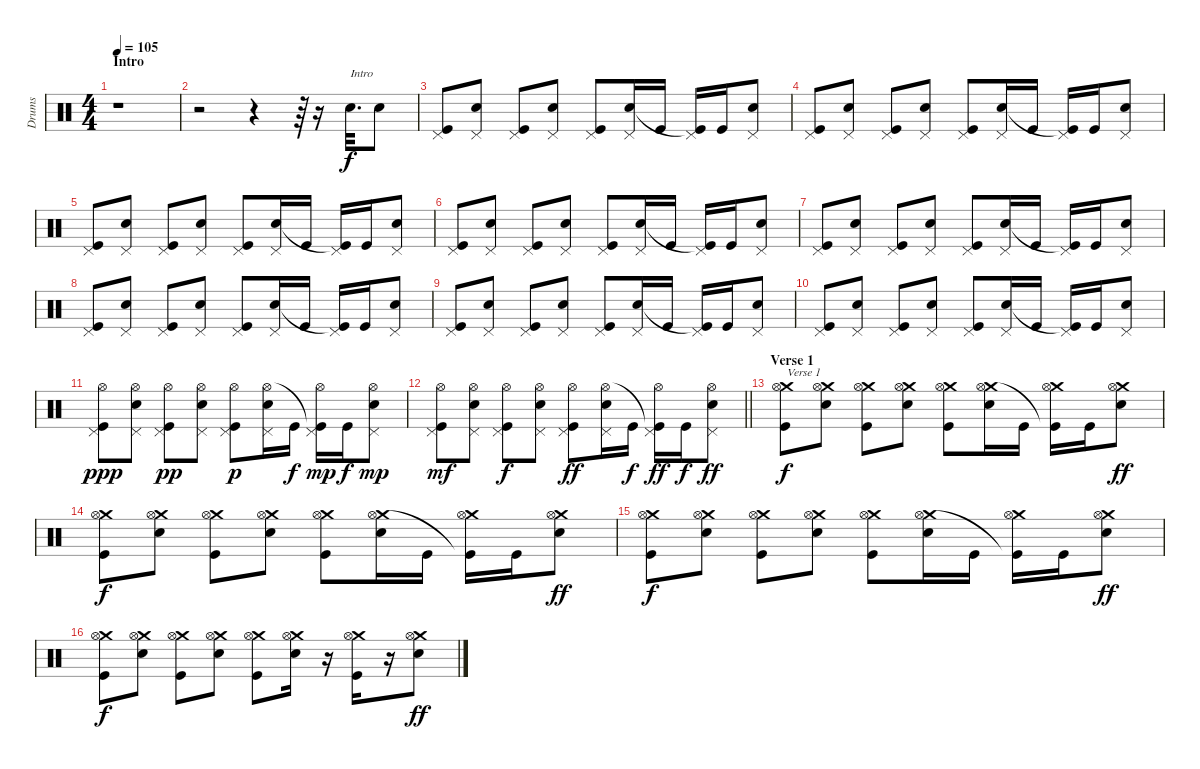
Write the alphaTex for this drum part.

\track ("Drums" "Drums") {instrument percussion}
\staff {score}
\articulation defaults
\ts (4 4)
\section ("" "Intro")
\tempo 105
\clef neutral
\ks c
r.1{dy f} |
r.2 r.4 r.64 r.16 "Electric Snare (hit)".32{d txt "Intro"} "Electric Snare (hit)".8 |
("Pedal Hi-Hat (hit)" "Kick (hit)").8 ("Pedal Hi-Hat (hit)" "Electric Snare (hit)").8 ("Pedal Hi-Hat (hit)" "Kick (hit)").8 ("Pedal Hi-Hat (hit)" "Electric Snare (hit)").8 ("Pedal Hi-Hat (hit)" "Kick (hit)").8 ("Pedal Hi-Hat (hit)" "Electric Snare (hit)").16 "Kick (hit)".16 ("Pedal Hi-Hat (hit)" "Kick (hit)"{t}).16 "Kick (hit)".16 ("Pedal Hi-Hat (hit)" "Electric Snare (hit)").8 |
("Pedal Hi-Hat (hit)" "Kick (hit)").8 ("Pedal Hi-Hat (hit)" "Electric Snare (hit)").8 ("Pedal Hi-Hat (hit)" "Kick (hit)").8 ("Pedal Hi-Hat (hit)" "Electric Snare (hit)").8 ("Pedal Hi-Hat (hit)" "Kick (hit)").8 ("Pedal Hi-Hat (hit)" "Electric Snare (hit)").16 "Kick (hit)".16 ("Pedal Hi-Hat (hit)" "Kick (hit)"{t}).16 "Kick (hit)".16 ("Pedal Hi-Hat (hit)" "Electric Snare (hit)").8 |
("Pedal Hi-Hat (hit)" "Kick (hit)").8 ("Pedal Hi-Hat (hit)" "Electric Snare (hit)").8 ("Pedal Hi-Hat (hit)" "Kick (hit)").8 ("Pedal Hi-Hat (hit)" "Electric Snare (hit)").8 ("Pedal Hi-Hat (hit)" "Kick (hit)").8 ("Pedal Hi-Hat (hit)" "Electric Snare (hit)").16 "Kick (hit)".16 ("Pedal Hi-Hat (hit)" "Kick (hit)"{t}).16 "Kick (hit)".16 ("Pedal Hi-Hat (hit)" "Electric Snare (hit)").8 |
("Pedal Hi-Hat (hit)" "Kick (hit)").8 ("Pedal Hi-Hat (hit)" "Electric Snare (hit)").8 ("Pedal Hi-Hat (hit)" "Kick (hit)").8 ("Pedal Hi-Hat (hit)" "Electric Snare (hit)").8 ("Pedal Hi-Hat (hit)" "Kick (hit)").8 ("Pedal Hi-Hat (hit)" "Electric Snare (hit)").16 "Kick (hit)".16 ("Pedal Hi-Hat (hit)" "Kick (hit)"{t}).16 "Kick (hit)".16 ("Pedal Hi-Hat (hit)" "Electric Snare (hit)").8 |
("Pedal Hi-Hat (hit)" "Kick (hit)").8 ("Pedal Hi-Hat (hit)" "Electric Snare (hit)").8 ("Pedal Hi-Hat (hit)" "Kick (hit)").8 ("Pedal Hi-Hat (hit)" "Electric Snare (hit)").8 ("Pedal Hi-Hat (hit)" "Kick (hit)").8 ("Pedal Hi-Hat (hit)" "Electric Snare (hit)").16 "Kick (hit)".16 ("Pedal Hi-Hat (hit)" "Kick (hit)"{t}).16 "Kick (hit)".16 ("Pedal Hi-Hat (hit)" "Electric Snare (hit)").8 |
("Pedal Hi-Hat (hit)" "Kick (hit)").8 ("Pedal Hi-Hat (hit)" "Electric Snare (hit)").8 ("Pedal Hi-Hat (hit)" "Kick (hit)").8 ("Pedal Hi-Hat (hit)" "Electric Snare (hit)").8 ("Pedal Hi-Hat (hit)" "Kick (hit)").8 ("Pedal Hi-Hat (hit)" "Electric Snare (hit)").16 "Kick (hit)".16 ("Pedal Hi-Hat (hit)" "Kick (hit)"{t}).16 "Kick (hit)".16 ("Pedal Hi-Hat (hit)" "Electric Snare (hit)").8 |
("Pedal Hi-Hat (hit)" "Kick (hit)").8 ("Pedal Hi-Hat (hit)" "Electric Snare (hit)").8 ("Pedal Hi-Hat (hit)" "Kick (hit)").8 ("Pedal Hi-Hat (hit)" "Electric Snare (hit)").8 ("Pedal Hi-Hat (hit)" "Kick (hit)").8 ("Pedal Hi-Hat (hit)" "Electric Snare (hit)").16 "Kick (hit)".16 ("Pedal Hi-Hat (hit)" "Kick (hit)"{t}).16 "Kick (hit)".16 ("Pedal Hi-Hat (hit)" "Electric Snare (hit)").8 |
("Pedal Hi-Hat (hit)" "Kick (hit)").8 ("Pedal Hi-Hat (hit)" "Electric Snare (hit)").8 ("Pedal Hi-Hat (hit)" "Kick (hit)").8 ("Pedal Hi-Hat (hit)" "Electric Snare (hit)").8 ("Pedal Hi-Hat (hit)" "Kick (hit)").8 ("Pedal Hi-Hat (hit)" "Electric Snare (hit)").16 "Kick (hit)".16 ("Pedal Hi-Hat (hit)" "Kick (hit)"{t}).16 "Kick (hit)".16 ("Pedal Hi-Hat (hit)" "Electric Snare (hit)").8 |
("Pedal Hi-Hat (hit)" "Hi-Hat (open)" "Kick (hit)").8{dy ppp} ("Pedal Hi-Hat (hit)" "Electric Snare (hit)" "Hi-Hat (open)").8 ("Pedal Hi-Hat (hit)" "Hi-Hat (open)" "Kick (hit)").8{dy pp} ("Pedal Hi-Hat (hit)" "Electric Snare (hit)" "Hi-Hat (open)").8 ("Pedal Hi-Hat (hit)" "Hi-Hat (open)" "Kick (hit)").8{dy p} ("Pedal Hi-Hat (hit)" "Electric Snare (hit)" "Hi-Hat (open)").16 "Kick (hit)".16{dy f} ("Pedal Hi-Hat (hit)" "Hi-Hat (open)" "Kick (hit)"{t}).16{dy mp} "Kick (hit)".16{dy f} ("Pedal Hi-Hat (hit)" "Electric Snare (hit)" "Hi-Hat (open)").8{dy mp} |
\barLineRight lightlight
("Pedal Hi-Hat (hit)" "Hi-Hat (open)" "Kick (hit)").8{dy mf} ("Pedal Hi-Hat (hit)" "Electric Snare (hit)" "Hi-Hat (open)").8 ("Pedal Hi-Hat (hit)" "Hi-Hat (open)" "Kick (hit)").8{dy f} ("Pedal Hi-Hat (hit)" "Electric Snare (hit)" "Hi-Hat (open)").8 ("Pedal Hi-Hat (hit)" "Hi-Hat (open)" "Kick (hit)").8{dy ff} ("Pedal Hi-Hat (hit)" "Electric Snare (hit)" "Hi-Hat (open)").16 "Kick (hit)".16{dy f} ("Pedal Hi-Hat (hit)" "Hi-Hat (open)" "Kick (hit)"{t}).16{dy ff} "Kick (hit)".16{dy f} ("Pedal Hi-Hat (hit)" "Electric Snare (hit)" "Hi-Hat (open)").8{dy ff} |
\section ("" "Verse 1")
("Crash medium (hit)" "Hi-Hat (open)" "Kick (hit)").8{txt "Verse 1" dy f} ("Crash medium (hit)" "Electric Snare (hit)" "Hi-Hat (open)").8 ("Crash medium (hit)" "Hi-Hat (open)" "Kick (hit)").8 ("Crash medium (hit)" "Electric Snare (hit)" "Hi-Hat (open)").8 ("Crash medium (hit)" "Hi-Hat (open)" "Kick (hit)").8 ("Crash medium (hit)" "Electric Snare (hit)" "Hi-Hat (open)").16 "Kick (hit)".16 ("Crash medium (hit)" "Hi-Hat (open)" "Kick (hit)"{t}).16 "Kick (hit)".16 ("Crash medium (hit)" "Electric Snare (hit)" "Hi-Hat (open)").8{dy ff} |
("Crash medium (hit)" "Hi-Hat (open)" "Kick (hit)").8{dy f} ("Crash medium (hit)" "Electric Snare (hit)" "Hi-Hat (open)").8 ("Crash medium (hit)" "Hi-Hat (open)" "Kick (hit)").8 ("Crash medium (hit)" "Electric Snare (hit)" "Hi-Hat (open)").8 ("Crash medium (hit)" "Hi-Hat (open)" "Kick (hit)").8 ("Crash medium (hit)" "Electric Snare (hit)" "Hi-Hat (open)").16 "Kick (hit)".16 ("Crash medium (hit)" "Hi-Hat (open)" "Kick (hit)"{t}).16 "Kick (hit)".16 ("Crash medium (hit)" "Electric Snare (hit)" "Hi-Hat (open)").8{dy ff} |
("Crash medium (hit)" "Hi-Hat (open)" "Kick (hit)").8{dy f} ("Crash medium (hit)" "Electric Snare (hit)" "Hi-Hat (open)").8 ("Crash medium (hit)" "Hi-Hat (open)" "Kick (hit)").8 ("Crash medium (hit)" "Electric Snare (hit)" "Hi-Hat (open)").8 ("Crash medium (hit)" "Hi-Hat (open)" "Kick (hit)").8 ("Crash medium (hit)" "Electric Snare (hit)" "Hi-Hat (open)").16 "Kick (hit)".16 ("Crash medium (hit)" "Hi-Hat (open)" "Kick (hit)"{t}).16 "Kick (hit)".16 ("Crash medium (hit)" "Electric Snare (hit)" "Hi-Hat (open)").8{dy ff} |
("Crash medium (hit)" "Hi-Hat (open)" "Kick (hit)").8{dy f} ("Crash medium (hit)" "Electric Snare (hit)" "Hi-Hat (open)").8 ("Crash medium (hit)" "Hi-Hat (open)" "Kick (hit)").8 ("Crash medium (hit)" "Electric Snare (hit)" "Hi-Hat (open)").8 ("Crash medium (hit)" "Hi-Hat (open)" "Kick (hit)").8 ("Crash medium (hit)" "Electric Snare (hit)" "Hi-Hat (open)").16 r.16 ("Crash medium (hit)" "Hi-Hat (open)" "Kick (hit)").16 r.16 ("Crash medium (hit)" "Electric Snare (hit)" "Hi-Hat (open)").8{dy ff}
